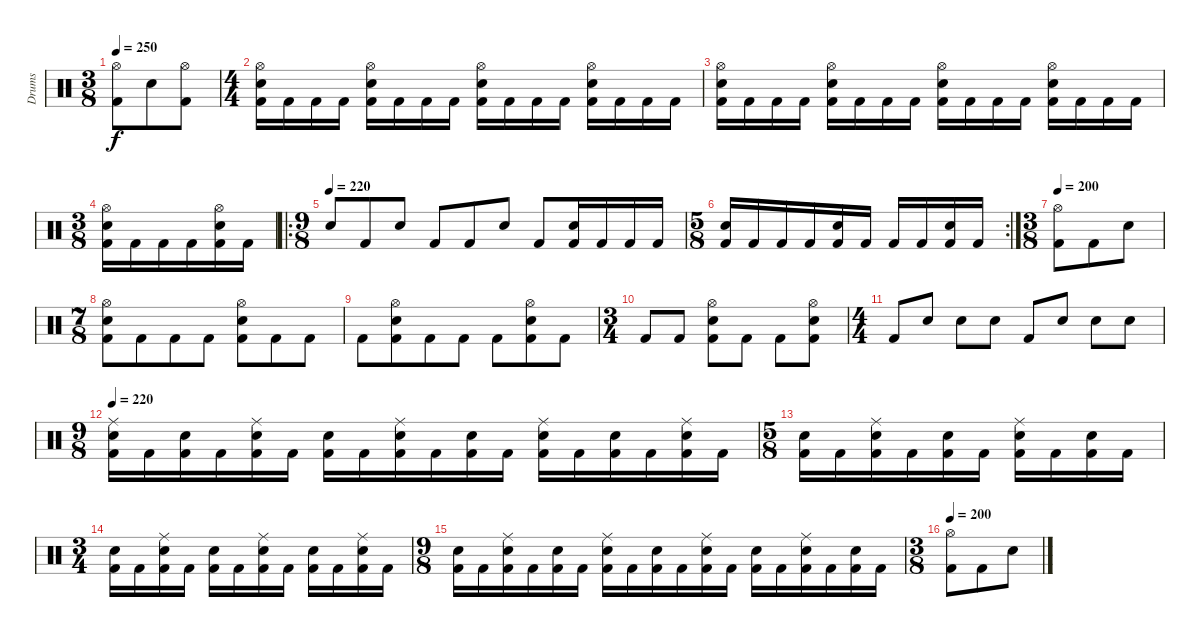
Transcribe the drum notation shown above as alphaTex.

\track ("Drums" "Drums") {instrument percussion}
\staff {score}
\articulation defaults
\ts (3 8)
\tempo 250
\clef neutral
\ks c
("Hi-Hat (open)" "Kick (hit) 2").8{dy f} "Electric Snare (hit)".8 ("Hi-Hat (open)" "Kick (hit) 2").8 |
\ts (4 4)
("Hi-Hat (open)" "Electric Snare (hit)" "Kick (hit) 2").16 "Kick (hit) 2".16 "Kick (hit) 2".16 "Kick (hit) 2".16 ("Hi-Hat (open)" "Electric Snare (hit)" "Kick (hit) 2").16 "Kick (hit) 2".16 "Kick (hit) 2".16 "Kick (hit) 2".16 ("Hi-Hat (open)" "Electric Snare (hit)" "Kick (hit) 2").16 "Kick (hit) 2".16 "Kick (hit) 2".16 "Kick (hit) 2".16 ("Hi-Hat (open)" "Electric Snare (hit)" "Kick (hit) 2").16 "Kick (hit) 2".16 "Kick (hit) 2".16 "Kick (hit) 2".16 |
("Hi-Hat (open)" "Electric Snare (hit)" "Kick (hit) 2").16 "Kick (hit) 2".16 "Kick (hit) 2".16 "Kick (hit) 2".16 ("Hi-Hat (open)" "Electric Snare (hit)" "Kick (hit) 2").16 "Kick (hit) 2".16 "Kick (hit) 2".16 "Kick (hit) 2".16 ("Hi-Hat (open)" "Electric Snare (hit)" "Kick (hit) 2").16 "Kick (hit) 2".16 "Kick (hit) 2".16 "Kick (hit) 2".16 ("Hi-Hat (open)" "Electric Snare (hit)" "Kick (hit) 2").16 "Kick (hit) 2".16 "Kick (hit) 2".16 "Kick (hit) 2".16 |
\ts (3 8)
("Hi-Hat (open)" "Electric Snare (hit)" "Kick (hit) 2").16 "Kick (hit) 2".16 "Kick (hit) 2".16 "Kick (hit) 2".16 ("Hi-Hat (open)" "Electric Snare (hit)" "Kick (hit) 2").16 "Kick (hit) 2".16 |
\ro
\ts (9 8)
\tempo (220)
"Electric Snare (hit)".8 "Kick (hit) 2".8 "Electric Snare (hit)".8 "Kick (hit) 2".8 "Kick (hit) 2".8 "Electric Snare (hit)".8 "Kick (hit) 2".8 ("Electric Snare (hit)" "Kick (hit) 2").16 "Kick (hit) 2".16 "Kick (hit) 2".16 "Kick (hit) 2".16 |
\rc 2
\ts (5 8)
("Electric Snare (hit)" "Kick (hit) 2").16 "Kick (hit) 2".16 "Kick (hit) 2".16 "Kick (hit) 2".16 ("Electric Snare (hit)" "Kick (hit) 2").16 "Kick (hit) 2".16 "Kick (hit) 2".16 "Kick (hit) 2".16 ("Electric Snare (hit)" "Kick (hit) 2").16 "Kick (hit) 2".16 |
\ts (3 8)
\tempo 200
("Hi-Hat (open)" "Kick (hit) 2").8 "Kick (hit) 2".8 "Electric Snare (hit)".8 |
\ts (7 8)
("Hi-Hat (open)" "Electric Snare (hit)" "Kick (hit) 2").8 "Kick (hit) 2".8 "Kick (hit) 2".8 "Kick (hit) 2".8 ("Hi-Hat (open)" "Electric Snare (hit)" "Kick (hit) 2").8 "Kick (hit) 2".8 "Kick (hit) 2".8 |
"Kick (hit) 2".8 ("Hi-Hat (open)" "Electric Snare (hit)" "Kick (hit) 2").8 "Kick (hit) 2".8 "Kick (hit) 2".8 "Kick (hit) 2".8 ("Hi-Hat (open)" "Electric Snare (hit)" "Kick (hit) 2").8 "Kick (hit) 2".8 |
\ts (3 4)
"Kick (hit) 2".8 "Kick (hit) 2".8 ("Hi-Hat (open)" "Electric Snare (hit)" "Kick (hit) 2").8 "Kick (hit) 2".8 "Kick (hit) 2".8 ("Hi-Hat (open)" "Electric Snare (hit)" "Kick (hit) 2").8 |
\ts (4 4)
"Kick (hit) 2".8 "Electric Snare (hit)".8 "Electric Snare (hit)".8 "Electric Snare (hit)".8 "Kick (hit) 2".8 "Electric Snare (hit)".8 "Electric Snare (hit)".8 "Electric Snare (hit)".8 |
\ts (9 8)
\tempo 220
("Ride (middle)" "Electric Snare (hit)" "Kick (hit) 2").16 "Kick (hit) 2".16 ("Electric Snare (hit)" "Kick (hit) 2").16 "Kick (hit) 2".16 ("Ride (middle)" "Electric Snare (hit)" "Kick (hit) 2").16 "Kick (hit) 2".16 ("Electric Snare (hit)" "Kick (hit) 2").16 "Kick (hit) 2".16 ("Ride (middle)" "Electric Snare (hit)" "Kick (hit) 2").16 "Kick (hit) 2".16 ("Electric Snare (hit)" "Kick (hit) 2").16 "Kick (hit) 2".16 ("Ride (middle)" "Electric Snare (hit)" "Kick (hit) 2").16 "Kick (hit) 2".16 ("Electric Snare (hit)" "Kick (hit) 2").16 "Kick (hit) 2".16 ("Ride (middle)" "Electric Snare (hit)" "Kick (hit) 2").16 "Kick (hit) 2".16 |
\ts (5 8)
("Electric Snare (hit)" "Kick (hit) 2").16 "Kick (hit) 2".16 ("Ride (middle)" "Electric Snare (hit)" "Kick (hit) 2").16 "Kick (hit) 2".16 ("Electric Snare (hit)" "Kick (hit) 2").16 "Kick (hit) 2".16 ("Ride (middle)" "Electric Snare (hit)" "Kick (hit) 2").16 "Kick (hit) 2".16 ("Electric Snare (hit)" "Kick (hit) 2").16 "Kick (hit) 2".16 |
\ts (3 4)
("Electric Snare (hit)" "Kick (hit) 2").16 "Kick (hit) 2".16 ("Ride (middle)" "Electric Snare (hit)" "Kick (hit) 2").16 "Kick (hit) 2".16 ("Electric Snare (hit)" "Kick (hit) 2").16 "Kick (hit) 2".16 ("Ride (middle)" "Electric Snare (hit)" "Kick (hit) 2").16 "Kick (hit) 2".16 ("Electric Snare (hit)" "Kick (hit) 2").16 "Kick (hit) 2".16 ("Ride (middle)" "Electric Snare (hit)" "Kick (hit) 2").16 "Kick (hit) 2".16 |
\ts (9 8)
("Electric Snare (hit)" "Kick (hit) 2").16 "Kick (hit) 2".16 ("Ride (middle)" "Electric Snare (hit)" "Kick (hit) 2").16 "Kick (hit) 2".16 ("Electric Snare (hit)" "Kick (hit) 2").16 "Kick (hit) 2".16 ("Ride (middle)" "Electric Snare (hit)" "Kick (hit) 2").16 "Kick (hit) 2".16 ("Electric Snare (hit)" "Kick (hit) 2").16 "Kick (hit) 2".16 ("Ride (middle)" "Electric Snare (hit)" "Kick (hit) 2").16 "Kick (hit) 2".16 ("Electric Snare (hit)" "Kick (hit) 2").16 "Kick (hit) 2".16 ("Ride (middle)" "Electric Snare (hit)" "Kick (hit) 2").16 "Kick (hit) 2".16 ("Electric Snare (hit)" "Kick (hit) 2").16 "Kick (hit) 2".16 |
\ts (3 8)
\tempo 200
("Hi-Hat (open)" "Kick (hit) 2").8 "Kick (hit) 2".8 "Electric Snare (hit)".8
